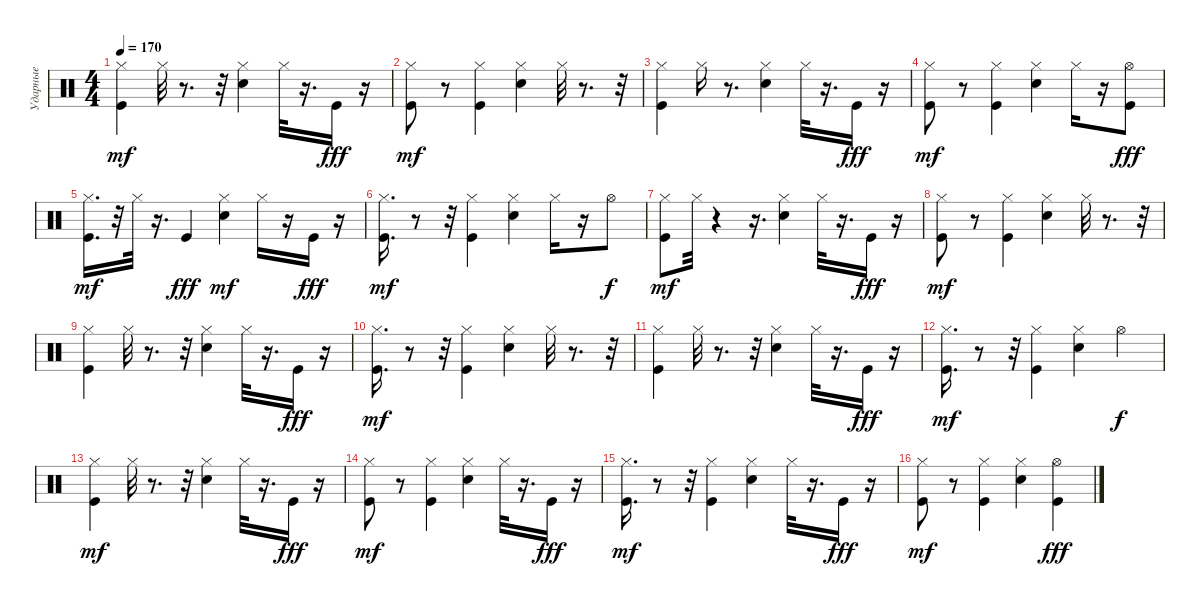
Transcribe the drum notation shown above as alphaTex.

\track ("Ударные" "Ударные") {instrument percussion}
\staff {score}
\articulation defaults
\ts (4 4)
\tempo 170
\clef neutral
\ks c
("Kick (hit)" "Hi-Hat (closed)").4{dy mf} "Hi-Hat (closed)".32 r.8{d} r.32 ("Snare (hit) 2" "Hi-Hat (closed)").4 "Hi-Hat (closed)".32 r.16{d} "Kick (hit)".16{dy fff} r.16 |
("Kick (hit)" "Hi-Hat (closed)").8{dy mf} r.8 ("Kick (hit)" "Hi-Hat (closed)").4 ("Snare (hit) 2" "Hi-Hat (closed)").4 "Hi-Hat (closed)".32 r.8{d} r.32 |
("Kick (hit)" "Hi-Hat (closed)").4 "Hi-Hat (closed)".16 r.8{d} ("Snare (hit) 2" "Hi-Hat (closed)").4 "Hi-Hat (closed)".32 r.16{d} "Kick (hit)".16{dy fff} r.16 |
("Kick (hit)" "Hi-Hat (closed)").8{dy mf} r.8 ("Kick (hit)" "Hi-Hat (closed)").4 ("Snare (hit) 2" "Hi-Hat (closed)").4 "Hi-Hat (closed)".16 r.16 ("Kick (hit)" "Hi-Hat (open)").8{dy fff} |
("Kick (hit)" "Hi-Hat (closed)").16{d dy mf} r.32 "Hi-Hat (closed)".32 r.16{d} "Kick (hit)".4{dy fff} ("Snare (hit) 2" "Hi-Hat (closed)").4{dy mf} "Hi-Hat (closed)".16 r.16 "Kick (hit)".16{dy fff} r.16 |
("Kick (hit)" "Hi-Hat (closed)").16{d dy mf} r.8 r.32 ("Kick (hit)" "Hi-Hat (closed)").4 ("Snare (hit) 2" "Hi-Hat (closed)").4 "Hi-Hat (closed)".16 r.16 "Hi-Hat (open)".8{dy f} |
("Kick (hit)" "Hi-Hat (closed)").8{dy mf} "Hi-Hat (closed)".32 r.4 r.16{d} ("Snare (hit) 2" "Hi-Hat (closed)").4 "Hi-Hat (closed)".32 r.16{d} "Kick (hit)".16{dy fff} r.16 |
("Kick (hit)" "Hi-Hat (closed)").8{dy mf} r.8 ("Kick (hit)" "Hi-Hat (closed)").4 ("Snare (hit) 2" "Hi-Hat (closed)").4 "Hi-Hat (closed)".32 r.8{d} r.32 |
("Kick (hit)" "Hi-Hat (closed)").4 "Hi-Hat (closed)".32 r.8{d} r.32 ("Snare (hit) 2" "Hi-Hat (closed)").4 "Hi-Hat (closed)".32 r.16{d} "Kick (hit)".16{dy fff} r.16 |
("Kick (hit)" "Hi-Hat (closed)").16{d dy mf} r.8 r.32 ("Kick (hit)" "Hi-Hat (closed)").4 ("Snare (hit) 2" "Hi-Hat (closed)").4 "Hi-Hat (closed)".32 r.8{d} r.32 |
("Kick (hit)" "Hi-Hat (closed)").4 "Hi-Hat (closed)".32 r.8{d} r.32 ("Snare (hit) 2" "Hi-Hat (closed)").4 "Hi-Hat (closed)".32 r.16{d} "Kick (hit)".16{dy fff} r.16 |
("Kick (hit)" "Hi-Hat (closed)").16{d dy mf} r.8 r.32 ("Kick (hit)" "Hi-Hat (closed)").4 ("Snare (hit) 2" "Hi-Hat (closed)").4 "Hi-Hat (open)".4{dy f} |
("Kick (hit)" "Hi-Hat (closed)").4{dy mf} "Hi-Hat (closed)".32 r.8{d} r.32 ("Snare (hit) 2" "Hi-Hat (closed)").4 "Hi-Hat (closed)".32 r.16{d} "Kick (hit)".16{dy fff} r.16 |
("Kick (hit)" "Hi-Hat (closed)").8{dy mf} r.8 ("Kick (hit)" "Hi-Hat (closed)").4 ("Snare (hit) 2" "Hi-Hat (closed)").4 "Hi-Hat (closed)".32 r.16{d} "Kick (hit)".16{dy fff} r.16 |
("Kick (hit)" "Hi-Hat (closed)").16{d dy mf} r.8 r.32 ("Kick (hit)" "Hi-Hat (closed)").4 ("Snare (hit) 2" "Hi-Hat (closed)").4 "Hi-Hat (closed)".32 r.16{d} "Kick (hit)".16{dy fff} r.16 |
("Kick (hit)" "Hi-Hat (closed)").8{dy mf} r.8 ("Kick (hit)" "Hi-Hat (closed)").4 ("Snare (hit) 2" "Hi-Hat (closed)").4 ("Kick (hit)" "Hi-Hat (open)").4{dy fff}
